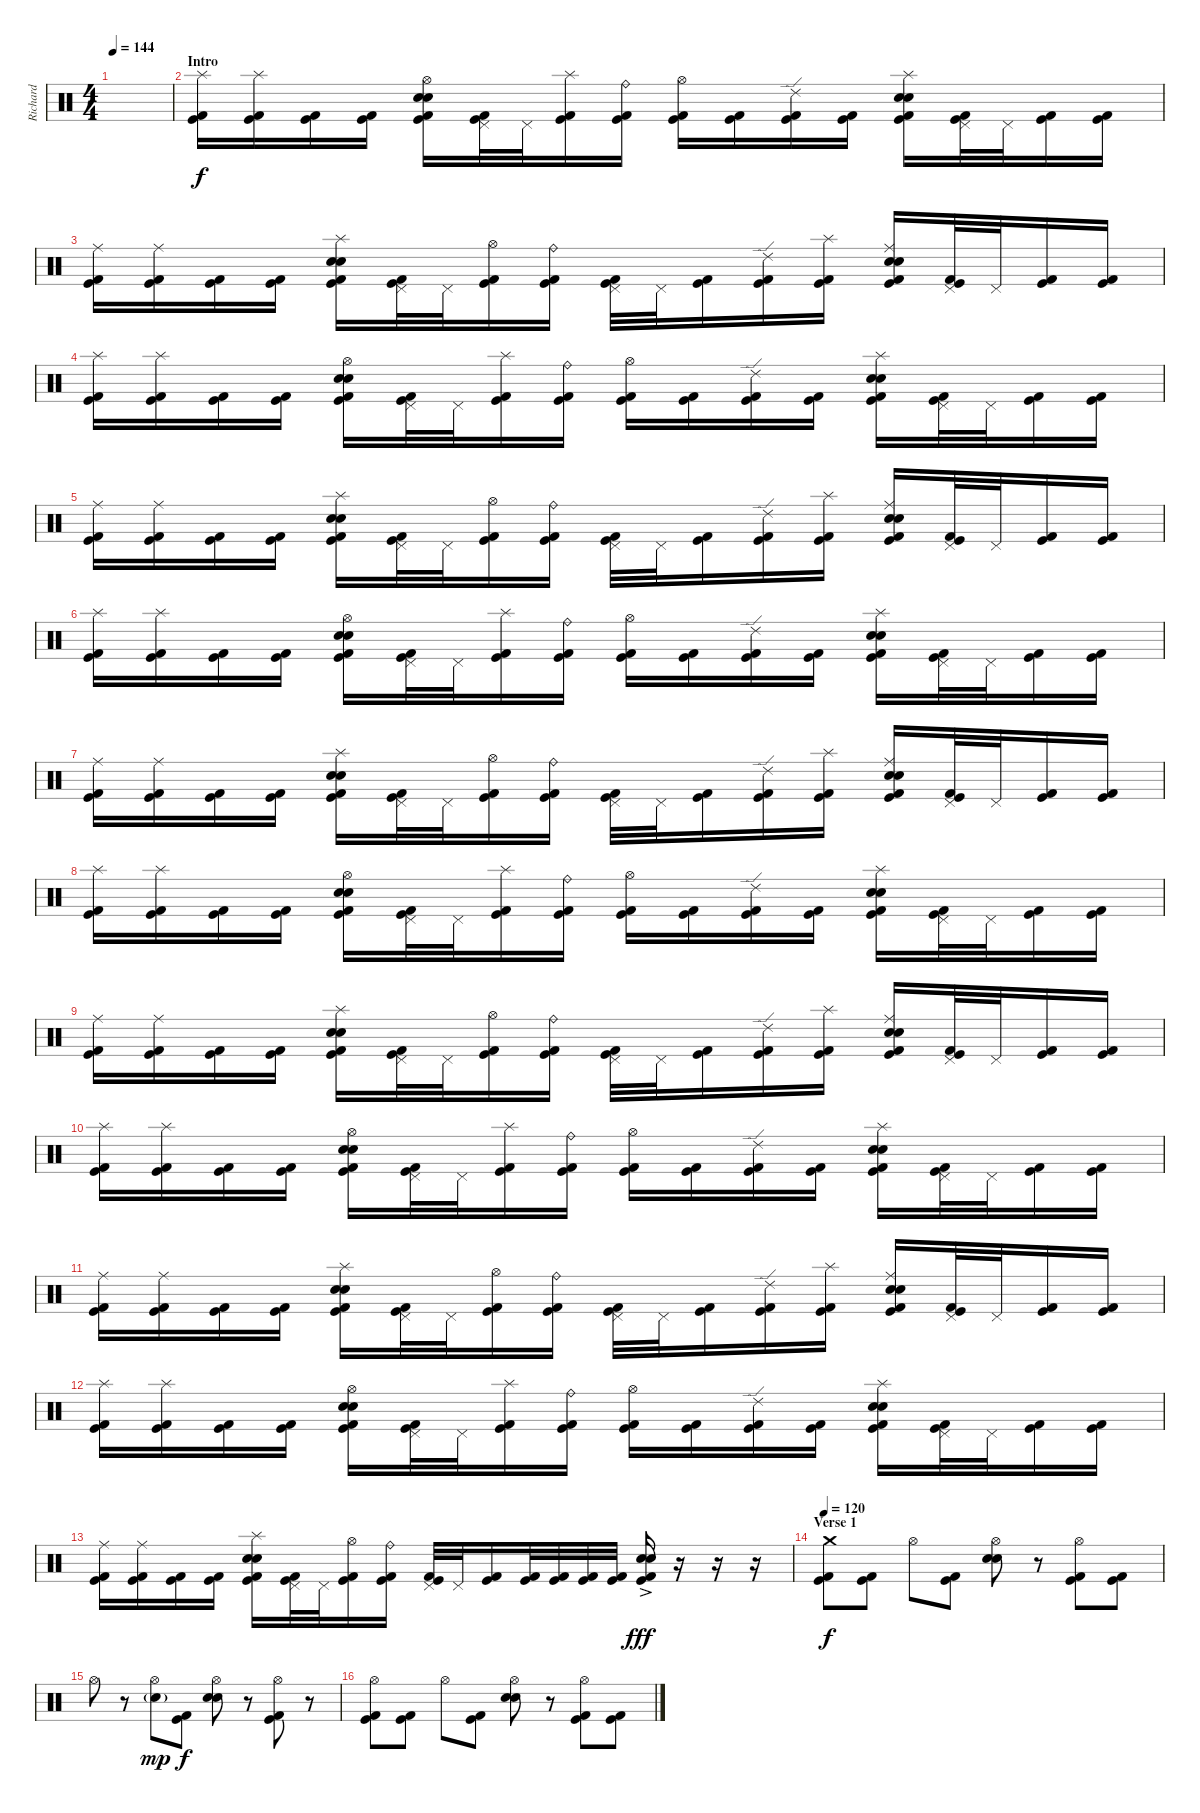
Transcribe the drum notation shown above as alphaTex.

\track ("Richard" "Richard") {instrument percussion}
\staff {score}
\articulation defaults
\ts (4 4)
\tempo 144
\clef neutral
\ks c
|
\section ("" "Intro")
("Splash (hit)" "Kick (hit)" "Kick (hit) 2").16 ("Splash (hit)" "Kick (hit)" "Kick (hit) 2").16 ("Kick (hit)" "Kick (hit) 2").16 ("Kick (hit)" "Kick (hit) 2").16 ("Hi-Hat (open)" "Snare (hit) 2" "Electric Snare (hit)" "Kick (hit)" "Kick (hit) 2").16 ("Pedal Hi-Hat (hit)" "Kick (hit)" "Kick (hit) 2").32 "Pedal Hi-Hat (hit)".32 ("Splash (hit)" "Kick (hit)" "Kick (hit) 2").16 ("Ride (bell)" "Kick (hit)" "Kick (hit) 2").16 ("Hi-Hat (open)" "Kick (hit)" "Kick (hit) 2").16 ("Kick (hit)" "Kick (hit) 2").16 ("Ride (edge) 2" "Kick (hit)" "Kick (hit) 2").16 ("Kick (hit)" "Kick (hit) 2").16 ("Splash (hit)" "Snare (hit) 2" "Electric Snare (hit)" "Kick (hit)" "Kick (hit) 2").16 ("Pedal Hi-Hat (hit)" "Kick (hit)" "Kick (hit) 2").32 "Pedal Hi-Hat (hit)".32 ("Kick (hit)" "Kick (hit) 2").16 ("Kick (hit)" "Kick (hit) 2").16 |
("Ride (middle)" "Kick (hit)" "Kick (hit) 2").16 ("Ride (middle)" "Kick (hit)" "Kick (hit) 2").16 ("Kick (hit)" "Kick (hit) 2").16 ("Kick (hit)" "Kick (hit) 2").16 ("Splash (hit)" "Snare (hit) 2" "Electric Snare (hit)" "Kick (hit)" "Kick (hit) 2").16 ("Pedal Hi-Hat (hit)" "Kick (hit)" "Kick (hit) 2").32 "Pedal Hi-Hat (hit)".32 ("Hi-Hat (open)" "Kick (hit)" "Kick (hit) 2").16 ("Ride (bell)" "Kick (hit)" "Kick (hit) 2").16 ("Pedal Hi-Hat (hit)" "Kick (hit)" "Kick (hit) 2").32 "Pedal Hi-Hat (hit)".32 ("Kick (hit)" "Kick (hit) 2").16 ("Ride (edge) 2" "Kick (hit)" "Kick (hit) 2").16 ("Splash (hit)" "Kick (hit)" "Kick (hit) 2").16 ("Ride (middle)" "Snare (hit) 2" "Electric Snare (hit)" "Kick (hit)" "Kick (hit) 2").16 ("Pedal Hi-Hat (hit)" "Kick (hit)" "Kick (hit) 2").32 "Pedal Hi-Hat (hit)".32 ("Kick (hit)" "Kick (hit) 2").16 ("Kick (hit)" "Kick (hit) 2").16 |
("Splash (hit)" "Kick (hit)" "Kick (hit) 2").16 ("Splash (hit)" "Kick (hit)" "Kick (hit) 2").16 ("Kick (hit)" "Kick (hit) 2").16 ("Kick (hit)" "Kick (hit) 2").16 ("Hi-Hat (open)" "Snare (hit) 2" "Electric Snare (hit)" "Kick (hit)" "Kick (hit) 2").16 ("Pedal Hi-Hat (hit)" "Kick (hit)" "Kick (hit) 2").32 "Pedal Hi-Hat (hit)".32 ("Splash (hit)" "Kick (hit)" "Kick (hit) 2").16 ("Ride (bell)" "Kick (hit)" "Kick (hit) 2").16 ("Hi-Hat (open)" "Kick (hit)" "Kick (hit) 2").16 ("Kick (hit)" "Kick (hit) 2").16 ("Ride (edge) 2" "Kick (hit)" "Kick (hit) 2").16 ("Kick (hit)" "Kick (hit) 2").16 ("Splash (hit)" "Snare (hit) 2" "Electric Snare (hit)" "Kick (hit)" "Kick (hit) 2").16 ("Pedal Hi-Hat (hit)" "Kick (hit)" "Kick (hit) 2").32 "Pedal Hi-Hat (hit)".32 ("Kick (hit)" "Kick (hit) 2").16 ("Kick (hit)" "Kick (hit) 2").16 |
("Ride (middle)" "Kick (hit)" "Kick (hit) 2").16 ("Ride (middle)" "Kick (hit)" "Kick (hit) 2").16 ("Kick (hit)" "Kick (hit) 2").16 ("Kick (hit)" "Kick (hit) 2").16 ("Splash (hit)" "Snare (hit) 2" "Electric Snare (hit)" "Kick (hit)" "Kick (hit) 2").16 ("Pedal Hi-Hat (hit)" "Kick (hit)" "Kick (hit) 2").32 "Pedal Hi-Hat (hit)".32 ("Hi-Hat (open)" "Kick (hit)" "Kick (hit) 2").16 ("Ride (bell)" "Kick (hit)" "Kick (hit) 2").16 ("Pedal Hi-Hat (hit)" "Kick (hit)" "Kick (hit) 2").32 "Pedal Hi-Hat (hit)".32 ("Kick (hit)" "Kick (hit) 2").16 ("Ride (edge) 2" "Kick (hit)" "Kick (hit) 2").16 ("Splash (hit)" "Kick (hit)" "Kick (hit) 2").16 ("Ride (middle)" "Snare (hit) 2" "Electric Snare (hit)" "Kick (hit)" "Kick (hit) 2").16 ("Pedal Hi-Hat (hit)" "Kick (hit)" "Kick (hit) 2").32 "Pedal Hi-Hat (hit)".32 ("Kick (hit)" "Kick (hit) 2").16 ("Kick (hit)" "Kick (hit) 2").16 |
("Splash (hit)" "Kick (hit)" "Kick (hit) 2").16 ("Splash (hit)" "Kick (hit)" "Kick (hit) 2").16 ("Kick (hit)" "Kick (hit) 2").16 ("Kick (hit)" "Kick (hit) 2").16 ("Hi-Hat (open)" "Snare (hit) 2" "Electric Snare (hit)" "Kick (hit)" "Kick (hit) 2").16 ("Pedal Hi-Hat (hit)" "Kick (hit)" "Kick (hit) 2").32 "Pedal Hi-Hat (hit)".32 ("Splash (hit)" "Kick (hit)" "Kick (hit) 2").16 ("Ride (bell)" "Kick (hit)" "Kick (hit) 2").16 ("Hi-Hat (open)" "Kick (hit)" "Kick (hit) 2").16 ("Kick (hit)" "Kick (hit) 2").16 ("Ride (edge) 2" "Kick (hit)" "Kick (hit) 2").16 ("Kick (hit)" "Kick (hit) 2").16 ("Splash (hit)" "Snare (hit) 2" "Electric Snare (hit)" "Kick (hit)" "Kick (hit) 2").16 ("Pedal Hi-Hat (hit)" "Kick (hit)" "Kick (hit) 2").32 "Pedal Hi-Hat (hit)".32 ("Kick (hit)" "Kick (hit) 2").16 ("Kick (hit)" "Kick (hit) 2").16 |
("Ride (middle)" "Kick (hit)" "Kick (hit) 2").16 ("Ride (middle)" "Kick (hit)" "Kick (hit) 2").16 ("Kick (hit)" "Kick (hit) 2").16 ("Kick (hit)" "Kick (hit) 2").16 ("Splash (hit)" "Snare (hit) 2" "Electric Snare (hit)" "Kick (hit)" "Kick (hit) 2").16 ("Pedal Hi-Hat (hit)" "Kick (hit)" "Kick (hit) 2").32 "Pedal Hi-Hat (hit)".32 ("Hi-Hat (open)" "Kick (hit)" "Kick (hit) 2").16 ("Ride (bell)" "Kick (hit)" "Kick (hit) 2").16 ("Pedal Hi-Hat (hit)" "Kick (hit)" "Kick (hit) 2").32 "Pedal Hi-Hat (hit)".32 ("Kick (hit)" "Kick (hit) 2").16 ("Ride (edge) 2" "Kick (hit)" "Kick (hit) 2").16 ("Splash (hit)" "Kick (hit)" "Kick (hit) 2").16 ("Ride (middle)" "Snare (hit) 2" "Electric Snare (hit)" "Kick (hit)" "Kick (hit) 2").16 ("Pedal Hi-Hat (hit)" "Kick (hit)" "Kick (hit) 2").32 "Pedal Hi-Hat (hit)".32 ("Kick (hit)" "Kick (hit) 2").16 ("Kick (hit)" "Kick (hit) 2").16 |
("Splash (hit)" "Kick (hit)" "Kick (hit) 2").16 ("Splash (hit)" "Kick (hit)" "Kick (hit) 2").16 ("Kick (hit)" "Kick (hit) 2").16 ("Kick (hit)" "Kick (hit) 2").16 ("Hi-Hat (open)" "Snare (hit) 2" "Electric Snare (hit)" "Kick (hit)" "Kick (hit) 2").16 ("Pedal Hi-Hat (hit)" "Kick (hit)" "Kick (hit) 2").32 "Pedal Hi-Hat (hit)".32 ("Splash (hit)" "Kick (hit)" "Kick (hit) 2").16 ("Ride (bell)" "Kick (hit)" "Kick (hit) 2").16 ("Hi-Hat (open)" "Kick (hit)" "Kick (hit) 2").16 ("Kick (hit)" "Kick (hit) 2").16 ("Ride (edge) 2" "Kick (hit)" "Kick (hit) 2").16 ("Kick (hit)" "Kick (hit) 2").16 ("Splash (hit)" "Snare (hit) 2" "Electric Snare (hit)" "Kick (hit)" "Kick (hit) 2").16 ("Pedal Hi-Hat (hit)" "Kick (hit)" "Kick (hit) 2").32 "Pedal Hi-Hat (hit)".32 ("Kick (hit)" "Kick (hit) 2").16 ("Kick (hit)" "Kick (hit) 2").16 |
("Ride (middle)" "Kick (hit)" "Kick (hit) 2").16 ("Ride (middle)" "Kick (hit)" "Kick (hit) 2").16 ("Kick (hit)" "Kick (hit) 2").16 ("Kick (hit)" "Kick (hit) 2").16 ("Splash (hit)" "Snare (hit) 2" "Electric Snare (hit)" "Kick (hit)" "Kick (hit) 2").16 ("Pedal Hi-Hat (hit)" "Kick (hit)" "Kick (hit) 2").32 "Pedal Hi-Hat (hit)".32 ("Hi-Hat (open)" "Kick (hit)" "Kick (hit) 2").16 ("Ride (bell)" "Kick (hit)" "Kick (hit) 2").16 ("Pedal Hi-Hat (hit)" "Kick (hit)" "Kick (hit) 2").32 "Pedal Hi-Hat (hit)".32 ("Kick (hit)" "Kick (hit) 2").16 ("Ride (edge) 2" "Kick (hit)" "Kick (hit) 2").16 ("Splash (hit)" "Kick (hit)" "Kick (hit) 2").16 ("Ride (middle)" "Snare (hit) 2" "Electric Snare (hit)" "Kick (hit)" "Kick (hit) 2").16 ("Pedal Hi-Hat (hit)" "Kick (hit)" "Kick (hit) 2").32 "Pedal Hi-Hat (hit)".32 ("Kick (hit)" "Kick (hit) 2").16 ("Kick (hit)" "Kick (hit) 2").16 |
("Splash (hit)" "Kick (hit)" "Kick (hit) 2").16 ("Splash (hit)" "Kick (hit)" "Kick (hit) 2").16 ("Kick (hit)" "Kick (hit) 2").16 ("Kick (hit)" "Kick (hit) 2").16 ("Hi-Hat (open)" "Snare (hit) 2" "Electric Snare (hit)" "Kick (hit)" "Kick (hit) 2").16 ("Pedal Hi-Hat (hit)" "Kick (hit)" "Kick (hit) 2").32 "Pedal Hi-Hat (hit)".32 ("Splash (hit)" "Kick (hit)" "Kick (hit) 2").16 ("Ride (bell)" "Kick (hit)" "Kick (hit) 2").16 ("Hi-Hat (open)" "Kick (hit)" "Kick (hit) 2").16 ("Kick (hit)" "Kick (hit) 2").16 ("Ride (edge) 2" "Kick (hit)" "Kick (hit) 2").16 ("Kick (hit)" "Kick (hit) 2").16 ("Splash (hit)" "Snare (hit) 2" "Electric Snare (hit)" "Kick (hit)" "Kick (hit) 2").16 ("Pedal Hi-Hat (hit)" "Kick (hit)" "Kick (hit) 2").32 "Pedal Hi-Hat (hit)".32 ("Kick (hit)" "Kick (hit) 2").16 ("Kick (hit)" "Kick (hit) 2").16 |
("Ride (middle)" "Kick (hit)" "Kick (hit) 2").16 ("Ride (middle)" "Kick (hit)" "Kick (hit) 2").16 ("Kick (hit)" "Kick (hit) 2").16 ("Kick (hit)" "Kick (hit) 2").16 ("Splash (hit)" "Snare (hit) 2" "Electric Snare (hit)" "Kick (hit)" "Kick (hit) 2").16 ("Pedal Hi-Hat (hit)" "Kick (hit)" "Kick (hit) 2").32 "Pedal Hi-Hat (hit)".32 ("Hi-Hat (open)" "Kick (hit)" "Kick (hit) 2").16 ("Ride (bell)" "Kick (hit)" "Kick (hit) 2").16 ("Pedal Hi-Hat (hit)" "Kick (hit)" "Kick (hit) 2").32 "Pedal Hi-Hat (hit)".32 ("Kick (hit)" "Kick (hit) 2").16 ("Ride (edge) 2" "Kick (hit)" "Kick (hit) 2").16 ("Splash (hit)" "Kick (hit)" "Kick (hit) 2").16 ("Ride (middle)" "Snare (hit) 2" "Electric Snare (hit)" "Kick (hit)" "Kick (hit) 2").16 ("Pedal Hi-Hat (hit)" "Kick (hit)" "Kick (hit) 2").32 "Pedal Hi-Hat (hit)".32 ("Kick (hit)" "Kick (hit) 2").16 ("Kick (hit)" "Kick (hit) 2").16 |
("Splash (hit)" "Kick (hit)" "Kick (hit) 2").16 ("Splash (hit)" "Kick (hit)" "Kick (hit) 2").16 ("Kick (hit)" "Kick (hit) 2").16 ("Kick (hit)" "Kick (hit) 2").16 ("Hi-Hat (open)" "Snare (hit) 2" "Electric Snare (hit)" "Kick (hit)" "Kick (hit) 2").16 ("Pedal Hi-Hat (hit)" "Kick (hit)" "Kick (hit) 2").32 "Pedal Hi-Hat (hit)".32 ("Splash (hit)" "Kick (hit)" "Kick (hit) 2").16 ("Ride (bell)" "Kick (hit)" "Kick (hit) 2").16 ("Hi-Hat (open)" "Kick (hit)" "Kick (hit) 2").16 ("Kick (hit)" "Kick (hit) 2").16 ("Ride (edge) 2" "Kick (hit)" "Kick (hit) 2").16 ("Kick (hit)" "Kick (hit) 2").16 ("Splash (hit)" "Snare (hit) 2" "Electric Snare (hit)" "Kick (hit)" "Kick (hit) 2").16 ("Pedal Hi-Hat (hit)" "Kick (hit)" "Kick (hit) 2").32 "Pedal Hi-Hat (hit)".32 ("Kick (hit)" "Kick (hit) 2").16 ("Kick (hit)" "Kick (hit) 2").16 |
("Ride (middle)" "Kick (hit)" "Kick (hit) 2").16 ("Ride (middle)" "Kick (hit)" "Kick (hit) 2").16 ("Kick (hit)" "Kick (hit) 2").16 ("Kick (hit)" "Kick (hit) 2").16 ("Splash (hit)" "Snare (hit) 2" "Electric Snare (hit)" "Kick (hit)" "Kick (hit) 2").16 ("Pedal Hi-Hat (hit)" "Kick (hit)" "Kick (hit) 2").32 "Pedal Hi-Hat (hit)".32 ("Hi-Hat (open)" "Kick (hit)" "Kick (hit) 2").16 ("Ride (bell)" "Kick (hit)" "Kick (hit) 2").16 ("Pedal Hi-Hat (hit)" "Kick (hit)" "Kick (hit) 2").32 "Pedal Hi-Hat (hit)".32 ("Kick (hit)" "Kick (hit) 2").16 ("Kick (hit)" "Kick (hit) 2").32 ("Kick (hit)" "Kick (hit) 2").32 ("Kick (hit)" "Kick (hit) 2").32 ("Kick (hit)" "Kick (hit) 2").32 ("Snare (hit) 2"{ac} "Electric Snare (hit)"{ac} "Kick (hit)" "Kick (hit) 2").16{dy fff} r.16 r.16 r.16 |
\section ("" "Verse 1")
\tempo 120
("Crash medium (hit)" "Kick (hit)" "Kick (hit) 2").8{dy f} ("Kick (hit)" "Kick (hit) 2").8 "Hi-Hat (open)".8 ("Kick (hit)" "Kick (hit) 2").8 ("Hi-Hat (open)" "Snare (hit) 2" "Electric Snare (hit)").8 r.8 ("Hi-Hat (open)" "Kick (hit)" "Kick (hit) 2").8 ("Kick (hit)" "Kick (hit) 2").8 |
"Hi-Hat (open)".8 r.8 ("Hi-Hat (open)" "Electric Snare (hit)"{g}).8{dy mp} ("Kick (hit)" "Kick (hit) 2").8{dy f} ("Hi-Hat (open)" "Snare (hit) 2" "Electric Snare (hit)").8 r.8 ("Hi-Hat (open)" "Kick (hit)" "Kick (hit) 2").8 r.8 |
("Hi-Hat (open)" "Kick (hit)" "Kick (hit) 2").8 ("Kick (hit)" "Kick (hit) 2").8 "Hi-Hat (open)".8 ("Kick (hit)" "Kick (hit) 2").8 ("Hi-Hat (open)" "Snare (hit) 2" "Electric Snare (hit)").8 r.8 ("Hi-Hat (open)" "Kick (hit)" "Kick (hit) 2").8 ("Kick (hit)" "Kick (hit) 2").8
